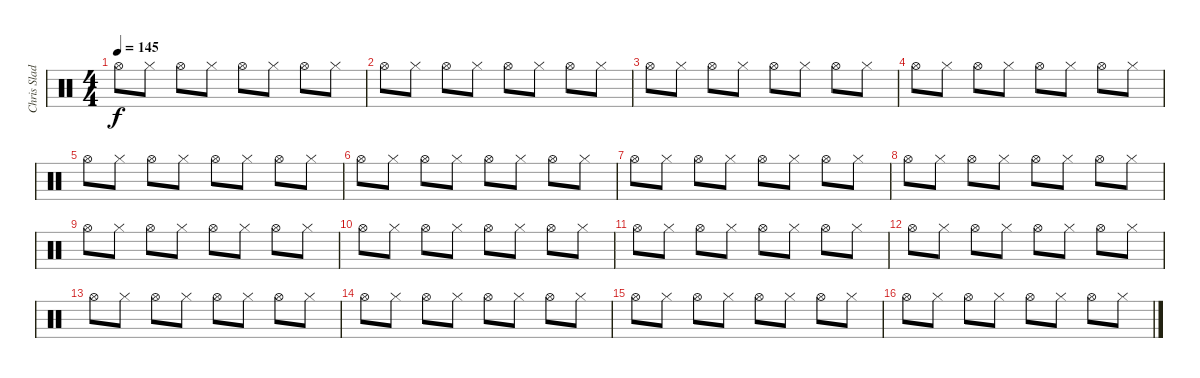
\track ("Chris Slade" "Chris Slad") {instrument percussion}
\staff {score}
\articulation defaults
\ts (4 4)
\tempo 145
\clef neutral
\ks c "Hi-Hat (open)".8{dy f} "Hi-Hat (closed)".8 "Hi-Hat (open)".8 "Hi-Hat (closed)".8 "Hi-Hat (open)".8 "Hi-Hat (closed)".8 "Hi-Hat (open)".8 "Hi-Hat (closed)".8
|
"Hi-Hat (open)".8 "Hi-Hat (closed)".8 "Hi-Hat (open)".8 "Hi-Hat (closed)".8 "Hi-Hat (open)".8 "Hi-Hat (closed)".8 "Hi-Hat (open)".8 "Hi-Hat (closed)".8 |
"Hi-Hat (open)".8 "Hi-Hat (closed)".8 "Hi-Hat (open)".8 "Hi-Hat (closed)".8 "Hi-Hat (open)".8 "Hi-Hat (closed)".8 "Hi-Hat (open)".8 "Hi-Hat (closed)".8 |
"Hi-Hat (open)".8 "Hi-Hat (closed)".8 "Hi-Hat (open)".8 "Hi-Hat (closed)".8 "Hi-Hat (open)".8 "Hi-Hat (closed)".8 "Hi-Hat (open)".8 "Hi-Hat (closed)".8 |
"Hi-Hat (open)".8 "Hi-Hat (closed)".8 "Hi-Hat (open)".8 "Hi-Hat (closed)".8 "Hi-Hat (open)".8 "Hi-Hat (closed)".8 "Hi-Hat (open)".8 "Hi-Hat (closed)".8 |
"Hi-Hat (open)".8 "Hi-Hat (closed)".8 "Hi-Hat (open)".8 "Hi-Hat (closed)".8 "Hi-Hat (open)".8 "Hi-Hat (closed)".8 "Hi-Hat (open)".8 "Hi-Hat (closed)".8 |
"Hi-Hat (open)".8 "Hi-Hat (closed)".8 "Hi-Hat (open)".8 "Hi-Hat (closed)".8 "Hi-Hat (open)".8 "Hi-Hat (closed)".8 "Hi-Hat (open)".8 "Hi-Hat (closed)".8 |
"Hi-Hat (open)".8 "Hi-Hat (closed)".8 "Hi-Hat (open)".8 "Hi-Hat (closed)".8 "Hi-Hat (open)".8 "Hi-Hat (closed)".8 "Hi-Hat (open)".8 "Hi-Hat (closed)".8 |
"Hi-Hat (open)".8 "Hi-Hat (closed)".8 "Hi-Hat (open)".8 "Hi-Hat (closed)".8 "Hi-Hat (open)".8 "Hi-Hat (closed)".8 "Hi-Hat (open)".8 "Hi-Hat (closed)".8 |
"Hi-Hat (open)".8 "Hi-Hat (closed)".8 "Hi-Hat (open)".8 "Hi-Hat (closed)".8 "Hi-Hat (open)".8 "Hi-Hat (closed)".8 "Hi-Hat (open)".8 "Hi-Hat (closed)".8 |
"Hi-Hat (open)".8 "Hi-Hat (closed)".8 "Hi-Hat (open)".8 "Hi-Hat (closed)".8 "Hi-Hat (open)".8 "Hi-Hat (closed)".8 "Hi-Hat (open)".8 "Hi-Hat (closed)".8 |
"Hi-Hat (open)".8 "Hi-Hat (closed)".8 "Hi-Hat (open)".8 "Hi-Hat (closed)".8 "Hi-Hat (open)".8 "Hi-Hat (closed)".8 "Hi-Hat (open)".8 "Hi-Hat (closed)".8 |
"Hi-Hat (open)".8 "Hi-Hat (closed)".8 "Hi-Hat (open)".8 "Hi-Hat (closed)".8 "Hi-Hat (open)".8 "Hi-Hat (closed)".8 "Hi-Hat (open)".8 "Hi-Hat (closed)".8 |
"Hi-Hat (open)".8 "Hi-Hat (closed)".8 "Hi-Hat (open)".8 "Hi-Hat (closed)".8 "Hi-Hat (open)".8 "Hi-Hat (closed)".8 "Hi-Hat (open)".8 "Hi-Hat (closed)".8 |
"Hi-Hat (open)".8 "Hi-Hat (closed)".8 "Hi-Hat (open)".8 "Hi-Hat (closed)".8 "Hi-Hat (open)".8 "Hi-Hat (closed)".8 "Hi-Hat (open)".8 "Hi-Hat (closed)".8 |
"Hi-Hat (open)".8 "Hi-Hat (closed)".8 "Hi-Hat (open)".8 "Hi-Hat (closed)".8 "Hi-Hat (open)".8 "Hi-Hat (closed)".8 "Hi-Hat (open)".8 "Hi-Hat (closed)".8
